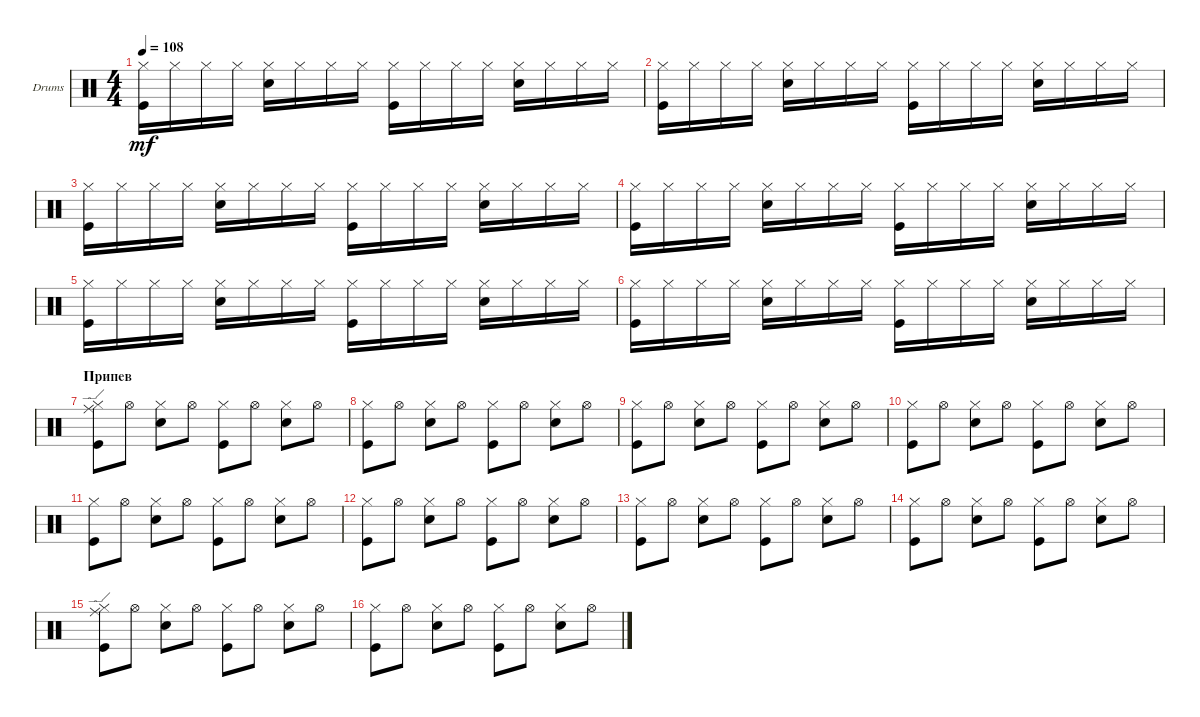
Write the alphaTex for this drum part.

\defaultSystemsLayout 4
\bracketExtendMode groupsimilarinstruments
\firstSystemTrackNameOrientation horizontal
\otherSystemsTrackNameOrientation horizontal
\track ("Drumkit" "Drums") {instrument percussion}
\staff {score}
\articulation defaults
\ts (4 4)
\tempo 108
\clef neutral
\scale
0.333333
\ks c
("Hi-Hat (closed)" "Kick (hit)").16{dy mf} "Hi-Hat (closed)".16 "Hi-Hat (closed)".16 "Hi-Hat (closed)".16 ("Hi-Hat (closed)" "Snare (hit) 2").16 "Hi-Hat (closed)".16 "Hi-Hat (closed)".16 "Hi-Hat (closed)".16 ("Hi-Hat (closed)" "Kick (hit)").16 "Hi-Hat (closed)".16 "Hi-Hat (closed)".16 "Hi-Hat (closed)".16 ("Hi-Hat (closed)" "Snare (hit) 2").16 "Hi-Hat (closed)".16 "Hi-Hat (closed)".16 "Hi-Hat (closed)".16 |
\scale
0.333333 ("Hi-Hat (closed)" "Kick (hit)").16 "Hi-Hat (closed)".16 "Hi-Hat (closed)".16 "Hi-Hat (closed)".16 ("Hi-Hat (closed)" "Snare (hit) 2").16 "Hi-Hat (closed)".16 "Hi-Hat (closed)".16 "Hi-Hat (closed)".16 ("Hi-Hat (closed)" "Kick (hit)").16 "Hi-Hat (closed)".16 "Hi-Hat (closed)".16 "Hi-Hat (closed)".16 ("Hi-Hat (closed)" "Snare (hit) 2").16 "Hi-Hat (closed)".16 "Hi-Hat (closed)".16 "Hi-Hat (closed)".16 |
\scale
0.333333 ("Hi-Hat (closed)" "Kick (hit)").16 "Hi-Hat (closed)".16 "Hi-Hat (closed)".16 "Hi-Hat (closed)".16 ("Hi-Hat (closed)" "Snare (hit) 2").16 "Hi-Hat (closed)".16 "Hi-Hat (closed)".16 "Hi-Hat (closed)".16 ("Hi-Hat (closed)" "Kick (hit)").16 "Hi-Hat (closed)".16 "Hi-Hat (closed)".16 "Hi-Hat (closed)".16 ("Hi-Hat (closed)" "Snare (hit) 2").16 "Hi-Hat (closed)".16 "Hi-Hat (closed)".16 "Hi-Hat (closed)".16 |
\scale
0.333333 ("Hi-Hat (closed)" "Kick (hit)").16 "Hi-Hat (closed)".16 "Hi-Hat (closed)".16 "Hi-Hat (closed)".16 ("Hi-Hat (closed)" "Snare (hit) 2").16 "Hi-Hat (closed)".16 "Hi-Hat (closed)".16 "Hi-Hat (closed)".16 ("Hi-Hat (closed)" "Kick (hit)").16 "Hi-Hat (closed)".16 "Hi-Hat (closed)".16 "Hi-Hat (closed)".16 ("Hi-Hat (closed)" "Snare (hit) 2").16 "Hi-Hat (closed)".16 "Hi-Hat (closed)".16 "Hi-Hat (closed)".16 |
\scale
0.333333 ("Hi-Hat (closed)" "Kick (hit)").16 "Hi-Hat (closed)".16 "Hi-Hat (closed)".16 "Hi-Hat (closed)".16 ("Hi-Hat (closed)" "Snare (hit) 2").16 "Hi-Hat (closed)".16 "Hi-Hat (closed)".16 "Hi-Hat (closed)".16 ("Hi-Hat (closed)" "Kick (hit)").16 "Hi-Hat (closed)".16 "Hi-Hat (closed)".16 "Hi-Hat (closed)".16 ("Hi-Hat (closed)" "Snare (hit) 2").16 "Hi-Hat (closed)".16 "Hi-Hat (closed)".16 "Hi-Hat (closed)".16 |
\scale
0.333333 ("Hi-Hat (closed)" "Kick (hit)").16 "Hi-Hat (closed)".16 "Hi-Hat (closed)".16 "Hi-Hat (closed)".16 ("Hi-Hat (closed)" "Snare (hit) 2").16 "Hi-Hat (closed)".16 "Hi-Hat (closed)".16 "Hi-Hat (closed)".16 ("Hi-Hat (closed)" "Kick (hit)").16 "Hi-Hat (closed)".16 "Hi-Hat (closed)".16 "Hi-Hat (closed)".16 ("Hi-Hat (closed)" "Snare (hit) 2").16 "Hi-Hat (closed)".16 "Hi-Hat (closed)".16 "Hi-Hat (closed)".16 |
\section ("" "Припев")
\scale
0.333333 ("Hi-Hat (closed)" "Kick (hit)" "Ride (edge)").8 "Hi-Hat (open)".8 ("Hi-Hat (closed)" "Snare (hit) 2").8 "Hi-Hat (open)".8 ("Hi-Hat (closed)" "Kick (hit)").8 "Hi-Hat (open)".8 ("Hi-Hat (closed)" "Snare (hit) 2").8 "Hi-Hat (open)".8 |
\scale
0.333333 ("Hi-Hat (closed)" "Kick (hit)").8 "Hi-Hat (open)".8 ("Hi-Hat (closed)" "Snare (hit) 2").8 "Hi-Hat (open)".8 ("Hi-Hat (closed)" "Kick (hit)").8 "Hi-Hat (open)".8 ("Hi-Hat (closed)" "Snare (hit) 2").8 "Hi-Hat (open)".8 |
\scale
0.333333 ("Hi-Hat (closed)" "Kick (hit)").8 "Hi-Hat (open)".8 ("Hi-Hat (closed)" "Snare (hit) 2").8 "Hi-Hat (open)".8 ("Hi-Hat (closed)" "Kick (hit)").8 "Hi-Hat (open)".8 ("Hi-Hat (closed)" "Snare (hit) 2").8 "Hi-Hat (open)".8 |
\scale
0.333333 ("Hi-Hat (closed)" "Kick (hit)").8 "Hi-Hat (open)".8 ("Hi-Hat (closed)" "Snare (hit) 2").8 "Hi-Hat (open)".8 ("Hi-Hat (closed)" "Kick (hit)").8 "Hi-Hat (open)".8 ("Hi-Hat (closed)" "Snare (hit) 2").8 "Hi-Hat (open)".8 |
\scale
0.333333 ("Hi-Hat (closed)" "Kick (hit)").8 "Hi-Hat (open)".8 ("Hi-Hat (closed)" "Snare (hit) 2").8 "Hi-Hat (open)".8 ("Hi-Hat (closed)" "Kick (hit)").8 "Hi-Hat (open)".8 ("Hi-Hat (closed)" "Snare (hit) 2").8 "Hi-Hat (open)".8 |
\scale
0.333333 ("Hi-Hat (closed)" "Kick (hit)").8 "Hi-Hat (open)".8 ("Hi-Hat (closed)" "Snare (hit) 2").8 "Hi-Hat (open)".8 ("Hi-Hat (closed)" "Kick (hit)").8 "Hi-Hat (open)".8 ("Hi-Hat (closed)" "Snare (hit) 2").8 "Hi-Hat (open)".8 |
\scale
0.333333 ("Hi-Hat (closed)" "Kick (hit)").8 "Hi-Hat (open)".8 ("Hi-Hat (closed)" "Snare (hit) 2").8 "Hi-Hat (open)".8 ("Hi-Hat (closed)" "Kick (hit)").8 "Hi-Hat (open)".8 ("Hi-Hat (closed)" "Snare (hit) 2").8 "Hi-Hat (open)".8 |
\scale
0.333333 ("Hi-Hat (closed)" "Kick (hit)").8 "Hi-Hat (open)".8 ("Hi-Hat (closed)" "Snare (hit) 2").8 "Hi-Hat (open)".8 ("Hi-Hat (closed)" "Kick (hit)").8 "Hi-Hat (open)".8 ("Hi-Hat (closed)" "Snare (hit) 2").8 "Hi-Hat (open)".8 |
\scale
0.333333 ("Hi-Hat (closed)" "Kick (hit)" "Ride (edge)").8 "Hi-Hat (open)".8 ("Hi-Hat (closed)" "Snare (hit) 2").8 "Hi-Hat (open)".8 ("Hi-Hat (closed)" "Kick (hit)").8 "Hi-Hat (open)".8 ("Hi-Hat (closed)" "Snare (hit) 2").8 "Hi-Hat (open)".8 |
\scale
0.333333 ("Hi-Hat (closed)" "Kick (hit)").8 "Hi-Hat (open)".8 ("Hi-Hat (closed)" "Snare (hit) 2").8 "Hi-Hat (open)".8 ("Hi-Hat (closed)" "Kick (hit)").8 "Hi-Hat (open)".8 ("Hi-Hat (closed)" "Snare (hit) 2").8 "Hi-Hat (open)".8
